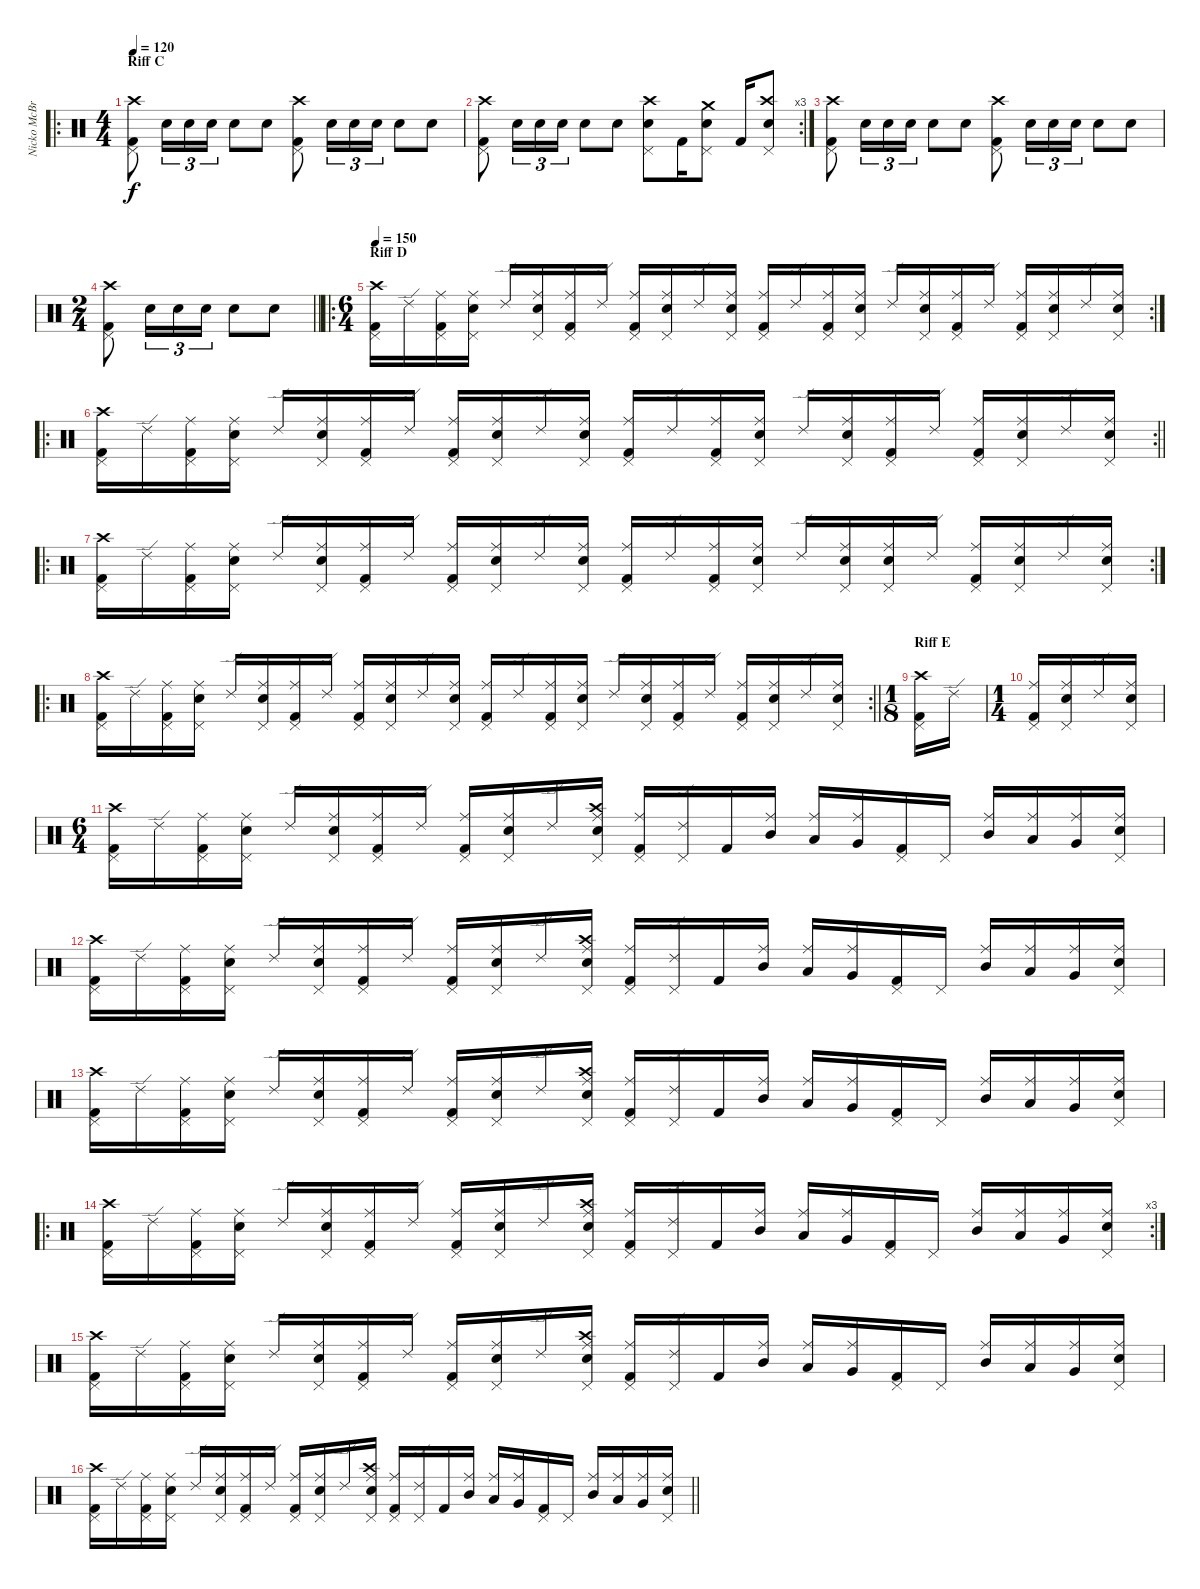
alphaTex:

\track ("Nicko McBrain" "Nicko McBr") {instrument percussion}
\staff {score}
\articulation defaults
\ro
\ts (4 4)
\section ("" "Riff C")
\tempo 120
\clef neutral
\ks c
("Kick (hit) 2" "Pedal Hi-Hat (hit)" "Crash high (hit)").8{dy f} "Snare (hit) 2".16{tu (3 2)} "Snare (hit) 2".16{tu (3 2)} "Snare (hit) 2".16{tu (3 2)} "Snare (hit) 2".8 "Snare (hit) 2".8 ("Kick (hit) 2" "Pedal Hi-Hat (hit)" "Crash high (hit)").8 "Snare (hit) 2".16{tu (3 2)} "Snare (hit) 2".16{tu (3 2)} "Snare (hit) 2".16{tu (3 2)} "Snare (hit) 2".8 "Snare (hit) 2".8 |
\rc 3
("Kick (hit) 2" "Pedal Hi-Hat (hit)" "Crash high (hit)").8 "Snare (hit) 2".16{tu (3 2)} "Snare (hit) 2".16{tu (3 2)} "Snare (hit) 2".16{tu (3 2)} "Snare (hit) 2".8 "Snare (hit) 2".8 ("Snare (hit) 2" "Pedal Hi-Hat (hit)" "Crash high (hit)").8 "Kick (hit) 2".16 ("Snare (hit) 2" "Pedal Hi-Hat (hit)" "Crash medium (hit)").8 "Kick (hit) 2".16 ("Snare (hit) 2" "Pedal Hi-Hat (hit)" "Crash high (hit)").8 |
("Kick (hit) 2" "Pedal Hi-Hat (hit)" "Crash high (hit)").8 "Snare (hit) 2".16{tu (3 2)} "Snare (hit) 2".16{tu (3 2)} "Snare (hit) 2".16{tu (3 2)} "Snare (hit) 2".8 "Snare (hit) 2".8 ("Kick (hit) 2" "Pedal Hi-Hat (hit)" "Crash high (hit)").8 "Snare (hit) 2".16{tu (3 2)} "Snare (hit) 2".16{tu (3 2)} "Snare (hit) 2".16{tu (3 2)} "Snare (hit) 2".8 "Snare (hit) 2".8 |
\ts (2 4)
\barLineRight lightlight
("Kick (hit) 2" "Pedal Hi-Hat (hit)" "Crash high (hit)").8 "Snare (hit) 2".16{tu (3 2)} "Snare (hit) 2".16{tu (3 2)} "Snare (hit) 2".16{tu (3 2)} "Snare (hit) 2".8 "Snare (hit) 2".8 |
\ro
\rc 2
\ts (6 4)
\section ("" "Riff D")
\tempo 150
("Kick (hit) 2" "Pedal Hi-Hat (hit)" "Crash high (hit)").16 "Ride (edge) 2".16 ("Kick (hit) 2" "Pedal Hi-Hat (hit)" "Ride (middle)").16 ("Snare (hit) 2" "Pedal Hi-Hat (hit)" "Ride (middle)").16 "Ride (edge) 2".16 ("Snare (hit) 2" "Pedal Hi-Hat (hit)" "Ride (middle)").16 ("Kick (hit) 2" "Pedal Hi-Hat (hit)" "Ride (middle)").16 "Ride (edge) 2".16 ("Kick (hit) 2" "Pedal Hi-Hat (hit)" "Ride (middle)").16 ("Snare (hit) 2" "Pedal Hi-Hat (hit)" "Ride (middle)").16 "Ride (edge) 2".16 ("Snare (hit) 2" "Pedal Hi-Hat (hit)" "Ride (middle)").16 ("Kick (hit) 2" "Pedal Hi-Hat (hit)" "Ride (middle)").16 "Ride (edge) 2".16 ("Kick (hit) 2" "Pedal Hi-Hat (hit)" "Ride (middle)").16 ("Snare (hit) 2" "Pedal Hi-Hat (hit)" "Ride (middle)").16 "Ride (edge) 2".16 ("Snare (hit) 2" "Pedal Hi-Hat (hit)" "Ride (middle)").16 ("Kick (hit) 2" "Pedal Hi-Hat (hit)" "Ride (middle)").16 "Ride (edge) 2".16 ("Kick (hit) 2" "Pedal Hi-Hat (hit)" "Ride (middle)").16 ("Snare (hit) 2" "Pedal Hi-Hat (hit)" "Ride (middle)").16 "Ride (edge) 2".16 ("Snare (hit) 2" "Pedal Hi-Hat (hit)" "Ride (middle)").16 |
\ro
\rc 2
\barLineRight lightlight
("Kick (hit) 2" "Pedal Hi-Hat (hit)" "Crash high (hit)").16 "Ride (edge) 2".16 ("Kick (hit) 2" "Pedal Hi-Hat (hit)" "Ride (middle)").16 ("Snare (hit) 2" "Pedal Hi-Hat (hit)" "Ride (middle)").16 "Ride (edge) 2".16 ("Snare (hit) 2" "Pedal Hi-Hat (hit)" "Ride (middle)").16 ("Kick (hit) 2" "Pedal Hi-Hat (hit)" "Ride (middle)").16 "Ride (edge) 2".16 ("Kick (hit) 2" "Pedal Hi-Hat (hit)" "Ride (middle)").16 ("Snare (hit) 2" "Pedal Hi-Hat (hit)" "Ride (middle)").16 "Ride (edge) 2".16 ("Snare (hit) 2" "Pedal Hi-Hat (hit)" "Ride (middle)").16 ("Kick (hit) 2" "Pedal Hi-Hat (hit)" "Ride (middle)").16 "Ride (edge) 2".16 ("Kick (hit) 2" "Pedal Hi-Hat (hit)" "Ride (middle)").16 ("Snare (hit) 2" "Pedal Hi-Hat (hit)" "Ride (middle)").16 "Ride (edge) 2".16 ("Snare (hit) 2" "Pedal Hi-Hat (hit)" "Ride (middle)").16 ("Kick (hit) 2" "Pedal Hi-Hat (hit)" "Ride (middle)").16 "Ride (edge) 2".16 ("Kick (hit) 2" "Pedal Hi-Hat (hit)" "Ride (middle)").16 ("Snare (hit) 2" "Pedal Hi-Hat (hit)" "Ride (middle)").16 "Ride (edge) 2".16 ("Snare (hit) 2" "Pedal Hi-Hat (hit)" "Ride (middle)").16 |
\ro
\rc 2
("Kick (hit) 2" "Pedal Hi-Hat (hit)" "Crash high (hit)").16 "Ride (edge) 2".16 ("Kick (hit) 2" "Pedal Hi-Hat (hit)" "Ride (middle)").16 ("Snare (hit) 2" "Pedal Hi-Hat (hit)" "Ride (middle)").16 "Ride (edge) 2".16 ("Snare (hit) 2" "Pedal Hi-Hat (hit)" "Ride (middle)").16 ("Kick (hit) 2" "Pedal Hi-Hat (hit)" "Ride (middle)").16 "Ride (edge) 2".16 ("Kick (hit) 2" "Pedal Hi-Hat (hit)" "Ride (middle)").16 ("Snare (hit) 2" "Pedal Hi-Hat (hit)" "Ride (middle)").16 "Ride (edge) 2".16 ("Snare (hit) 2" "Pedal Hi-Hat (hit)" "Ride (middle)").16 ("Kick (hit) 2" "Pedal Hi-Hat (hit)" "Ride (middle)").16 "Ride (edge) 2".16 ("Kick (hit) 2" "Pedal Hi-Hat (hit)" "Ride (middle)").16 ("Snare (hit) 2" "Pedal Hi-Hat (hit)" "Ride (middle)").16 "Ride (edge) 2".16 ("Snare (hit) 2" "Pedal Hi-Hat (hit)" "Ride (middle)").16 ("Snare (hit) 2" "Pedal Hi-Hat (hit)" "Ride (middle)").16 "Ride (edge) 2".16 ("Kick (hit) 2" "Pedal Hi-Hat (hit)" "Ride (middle)").16 ("Snare (hit) 2" "Pedal Hi-Hat (hit)" "Ride (middle)").16 "Ride (edge) 2".16 ("Snare (hit) 2" "Pedal Hi-Hat (hit)" "Ride (middle)").16 |
\ro
\rc 2
\barLineRight lightlight
("Kick (hit) 2" "Pedal Hi-Hat (hit)" "Crash high (hit)").16 "Ride (edge) 2".16 ("Kick (hit) 2" "Pedal Hi-Hat (hit)" "Ride (middle)").16 ("Snare (hit) 2" "Pedal Hi-Hat (hit)" "Ride (middle)").16 "Ride (edge) 2".16 ("Snare (hit) 2" "Pedal Hi-Hat (hit)" "Ride (middle)").16 ("Kick (hit) 2" "Pedal Hi-Hat (hit)" "Ride (middle)").16 "Ride (edge) 2".16 ("Kick (hit) 2" "Pedal Hi-Hat (hit)" "Ride (middle)").16 ("Snare (hit) 2" "Pedal Hi-Hat (hit)" "Ride (middle)").16 "Ride (edge) 2".16 ("Snare (hit) 2" "Pedal Hi-Hat (hit)" "Ride (middle)").16 ("Kick (hit) 2" "Pedal Hi-Hat (hit)" "Ride (middle)").16 "Ride (edge) 2".16 ("Kick (hit) 2" "Pedal Hi-Hat (hit)" "Ride (middle)").16 ("Snare (hit) 2" "Pedal Hi-Hat (hit)" "Ride (middle)").16 "Ride (edge) 2".16 ("Snare (hit) 2" "Pedal Hi-Hat (hit)" "Ride (middle)").16 ("Kick (hit) 2" "Pedal Hi-Hat (hit)" "Ride (middle)").16 "Ride (edge) 2".16 ("Kick (hit) 2" "Pedal Hi-Hat (hit)" "Ride (middle)").16 ("Snare (hit) 2" "Pedal Hi-Hat (hit)" "Ride (middle)").16 "Ride (edge) 2".16 ("Snare (hit) 2" "Pedal Hi-Hat (hit)" "Ride (middle)").16 |
\ts (1 8)
\section ("" "Riff E")
("Kick (hit) 2" "Pedal Hi-Hat (hit)" "Crash high (hit)").16 "Ride (edge) 2".16 |
\ts (1 4)
("Kick (hit) 2" "Pedal Hi-Hat (hit)" "Ride (middle)").16 ("Snare (hit) 2" "Pedal Hi-Hat (hit)" "Ride (middle)").16 "Ride (edge) 2".16 ("Snare (hit) 2" "Pedal Hi-Hat (hit)" "Ride (middle)").16 |
\ts (6 4)
("Kick (hit) 2" "Pedal Hi-Hat (hit)" "Crash high (hit)").16 "Ride (edge) 2".16 ("Kick (hit) 2" "Pedal Hi-Hat (hit)" "Ride (middle)").16 ("Snare (hit) 2" "Pedal Hi-Hat (hit)" "Ride (middle)").16 "Ride (edge) 2".16 ("Snare (hit) 2" "Pedal Hi-Hat (hit)" "Ride (middle)").16 ("Kick (hit) 2" "Pedal Hi-Hat (hit)" "Ride (middle)").16 "Ride (edge) 2".16 ("Kick (hit) 2" "Pedal Hi-Hat (hit)" "Ride (middle)").16 ("Snare (hit) 2" "Pedal Hi-Hat (hit)" "Ride (middle)").16 "Ride (edge) 2".16 ("Snare (hit) 2" "Pedal Hi-Hat (hit)" "Ride (middle)" "Crash high (hit)").16 ("Kick (hit) 2" "Pedal Hi-Hat (hit)" "Ride (middle)").16 ("Pedal Hi-Hat (hit)" "Ride (edge) 2").16 "Kick (hit) 2".16 ("Mid Tom (hit)" "Ride (middle)").16 ("Low Tom (hit)" "Ride (middle)").16 ("Very Low Tom (hit)" "Ride (middle)").16 ("Kick (hit) 2" "Pedal Hi-Hat (hit)").16 "Pedal Hi-Hat (hit)".16 ("Mid Tom (hit)" "Ride (middle)").16 ("Low Tom (hit)" "Ride (middle)").16 ("Very Low Tom (hit)" "Ride (middle)").16 ("Snare (hit) 2" "Pedal Hi-Hat (hit)" "Ride (middle)").16 |
("Kick (hit) 2" "Pedal Hi-Hat (hit)" "Crash high (hit)").16 "Ride (edge) 2".16 ("Kick (hit) 2" "Pedal Hi-Hat (hit)" "Ride (middle)").16 ("Snare (hit) 2" "Pedal Hi-Hat (hit)" "Ride (middle)").16 "Ride (edge) 2".16 ("Snare (hit) 2" "Pedal Hi-Hat (hit)" "Ride (middle)").16 ("Kick (hit) 2" "Pedal Hi-Hat (hit)" "Ride (middle)").16 "Ride (edge) 2".16 ("Kick (hit) 2" "Pedal Hi-Hat (hit)" "Ride (middle)").16 ("Snare (hit) 2" "Pedal Hi-Hat (hit)" "Ride (middle)").16 "Ride (edge) 2".16 ("Snare (hit) 2" "Pedal Hi-Hat (hit)" "Ride (middle)" "Crash high (hit)").16 ("Kick (hit) 2" "Pedal Hi-Hat (hit)" "Ride (middle)").16 ("Pedal Hi-Hat (hit)" "Ride (edge) 2").16 "Kick (hit) 2".16 ("Mid Tom (hit)" "Ride (middle)").16 ("Low Tom (hit)" "Ride (middle)").16 ("Very Low Tom (hit)" "Ride (middle)").16 ("Kick (hit) 2" "Pedal Hi-Hat (hit)").16 "Pedal Hi-Hat (hit)".16 ("Mid Tom (hit)" "Ride (middle)").16 ("Low Tom (hit)" "Ride (middle)").16 ("Very Low Tom (hit)" "Ride (middle)").16 ("Snare (hit) 2" "Pedal Hi-Hat (hit)" "Ride (middle)").16 |
("Kick (hit) 2" "Pedal Hi-Hat (hit)" "Crash high (hit)").16 "Ride (edge) 2".16 ("Kick (hit) 2" "Pedal Hi-Hat (hit)" "Ride (middle)").16 ("Snare (hit) 2" "Pedal Hi-Hat (hit)" "Ride (middle)").16 "Ride (edge) 2".16 ("Snare (hit) 2" "Pedal Hi-Hat (hit)" "Ride (middle)").16 ("Kick (hit) 2" "Pedal Hi-Hat (hit)" "Ride (middle)").16 "Ride (edge) 2".16 ("Kick (hit) 2" "Pedal Hi-Hat (hit)" "Ride (middle)").16 ("Snare (hit) 2" "Pedal Hi-Hat (hit)" "Ride (middle)").16 "Ride (edge) 2".16 ("Snare (hit) 2" "Pedal Hi-Hat (hit)" "Ride (middle)" "Crash high (hit)").16 ("Kick (hit) 2" "Pedal Hi-Hat (hit)" "Ride (middle)").16 ("Pedal Hi-Hat (hit)" "Ride (edge) 2").16 "Kick (hit) 2".16 ("Mid Tom (hit)" "Ride (middle)").16 ("Low Tom (hit)" "Ride (middle)").16 ("Very Low Tom (hit)" "Ride (middle)").16 ("Kick (hit) 2" "Pedal Hi-Hat (hit)").16 "Pedal Hi-Hat (hit)".16 ("Mid Tom (hit)" "Ride (middle)").16 ("Low Tom (hit)" "Ride (middle)").16 ("Very Low Tom (hit)" "Ride (middle)").16 ("Snare (hit) 2" "Pedal Hi-Hat (hit)" "Ride (middle)").16 |
\ro
\rc 3
("Kick (hit) 2" "Pedal Hi-Hat (hit)" "Crash high (hit)").16 "Ride (edge) 2".16 ("Kick (hit) 2" "Pedal Hi-Hat (hit)" "Ride (middle)").16 ("Snare (hit) 2" "Pedal Hi-Hat (hit)" "Ride (middle)").16 "Ride (edge) 2".16 ("Snare (hit) 2" "Pedal Hi-Hat (hit)" "Ride (middle)").16 ("Kick (hit) 2" "Pedal Hi-Hat (hit)" "Ride (middle)").16 "Ride (edge) 2".16 ("Kick (hit) 2" "Pedal Hi-Hat (hit)" "Ride (middle)").16 ("Snare (hit) 2" "Pedal Hi-Hat (hit)" "Ride (middle)").16 "Ride (edge) 2".16 ("Snare (hit) 2" "Pedal Hi-Hat (hit)" "Ride (middle)" "Crash high (hit)").16 ("Kick (hit) 2" "Pedal Hi-Hat (hit)" "Ride (middle)").16 ("Pedal Hi-Hat (hit)" "Ride (edge) 2").16 "Kick (hit) 2".16 ("Mid Tom (hit)" "Ride (middle)").16 ("Low Tom (hit)" "Ride (middle)").16 ("Very Low Tom (hit)" "Ride (middle)").16 ("Kick (hit) 2" "Pedal Hi-Hat (hit)").16 "Pedal Hi-Hat (hit)".16 ("Mid Tom (hit)" "Ride (middle)").16 ("Low Tom (hit)" "Ride (middle)").16 ("Very Low Tom (hit)" "Ride (middle)").16 ("Snare (hit) 2" "Pedal Hi-Hat (hit)" "Ride (middle)").16 |
("Kick (hit) 2" "Pedal Hi-Hat (hit)" "Crash high (hit)").16 "Ride (edge) 2".16 ("Kick (hit) 2" "Pedal Hi-Hat (hit)" "Ride (middle)").16 ("Snare (hit) 2" "Pedal Hi-Hat (hit)" "Ride (middle)").16 "Ride (edge) 2".16 ("Snare (hit) 2" "Pedal Hi-Hat (hit)" "Ride (middle)").16 ("Kick (hit) 2" "Pedal Hi-Hat (hit)" "Ride (middle)").16 "Ride (edge) 2".16 ("Kick (hit) 2" "Pedal Hi-Hat (hit)" "Ride (middle)").16 ("Snare (hit) 2" "Pedal Hi-Hat (hit)" "Ride (middle)").16 "Ride (edge) 2".16 ("Snare (hit) 2" "Pedal Hi-Hat (hit)" "Ride (middle)" "Crash high (hit)").16 ("Kick (hit) 2" "Pedal Hi-Hat (hit)" "Ride (middle)").16 ("Pedal Hi-Hat (hit)" "Ride (edge) 2").16 "Kick (hit) 2".16 ("Mid Tom (hit)" "Ride (middle)").16 ("Low Tom (hit)" "Ride (middle)").16 ("Very Low Tom (hit)" "Ride (middle)").16 ("Kick (hit) 2" "Pedal Hi-Hat (hit)").16 "Pedal Hi-Hat (hit)".16 ("Mid Tom (hit)" "Ride (middle)").16 ("Low Tom (hit)" "Ride (middle)").16 ("Very Low Tom (hit)" "Ride (middle)").16 ("Snare (hit) 2" "Pedal Hi-Hat (hit)" "Ride (middle)").16 |
\barLineRight lightlight
("Kick (hit) 2" "Pedal Hi-Hat (hit)" "Crash high (hit)").16 "Ride (edge) 2".16 ("Kick (hit) 2" "Pedal Hi-Hat (hit)" "Ride (middle)").16 ("Snare (hit) 2" "Pedal Hi-Hat (hit)" "Ride (middle)").16 "Ride (edge) 2".16 ("Snare (hit) 2" "Pedal Hi-Hat (hit)" "Ride (middle)").16 ("Kick (hit) 2" "Pedal Hi-Hat (hit)" "Ride (middle)").16 "Ride (edge) 2".16 ("Kick (hit) 2" "Pedal Hi-Hat (hit)" "Ride (middle)").16 ("Snare (hit) 2" "Pedal Hi-Hat (hit)" "Ride (middle)").16 "Ride (edge) 2".16 ("Snare (hit) 2" "Pedal Hi-Hat (hit)" "Ride (middle)" "Crash high (hit)").16 ("Kick (hit) 2" "Pedal Hi-Hat (hit)" "Ride (middle)").16 ("Pedal Hi-Hat (hit)" "Ride (edge) 2").16 "Kick (hit) 2".16 ("Mid Tom (hit)" "Ride (middle)").16 ("Low Tom (hit)" "Ride (middle)").16 ("Very Low Tom (hit)" "Ride (middle)").16 ("Kick (hit) 2" "Pedal Hi-Hat (hit)").16 "Pedal Hi-Hat (hit)".16 ("Mid Tom (hit)" "Ride (middle)").16 ("Low Tom (hit)" "Ride (middle)").16 ("Very Low Tom (hit)" "Ride (middle)").16 ("Snare (hit) 2" "Pedal Hi-Hat (hit)" "Ride (middle)").16
